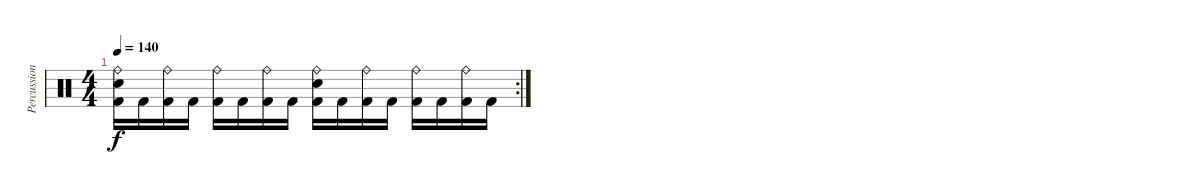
\track ("Percussion" "Percussion") {instrument percussion}
\staff {score}
\articulation defaults
\rc 2
\ts (4 4)
\tempo 140
\clef neutral
\ks c
("Ride (bell)" "Snare (hit) 2" "Kick (hit) 2").16{dy f} "Kick (hit) 2".16 ("Ride (bell)" "Kick (hit) 2").16 "Kick (hit) 2".16 ("Ride (bell)" "Kick (hit) 2").16 "Kick (hit) 2".16 ("Ride (bell)" "Kick (hit) 2").16 "Kick (hit) 2".16 ("Ride (bell)" "Snare (hit) 2" "Kick (hit) 2").16 "Kick (hit) 2".16 ("Ride (bell)" "Kick (hit) 2").16 "Kick (hit) 2".16 ("Ride (bell)" "Kick (hit) 2").16 "Kick (hit) 2".16 ("Ride (bell)" "Kick (hit) 2").16 "Kick (hit) 2".16
